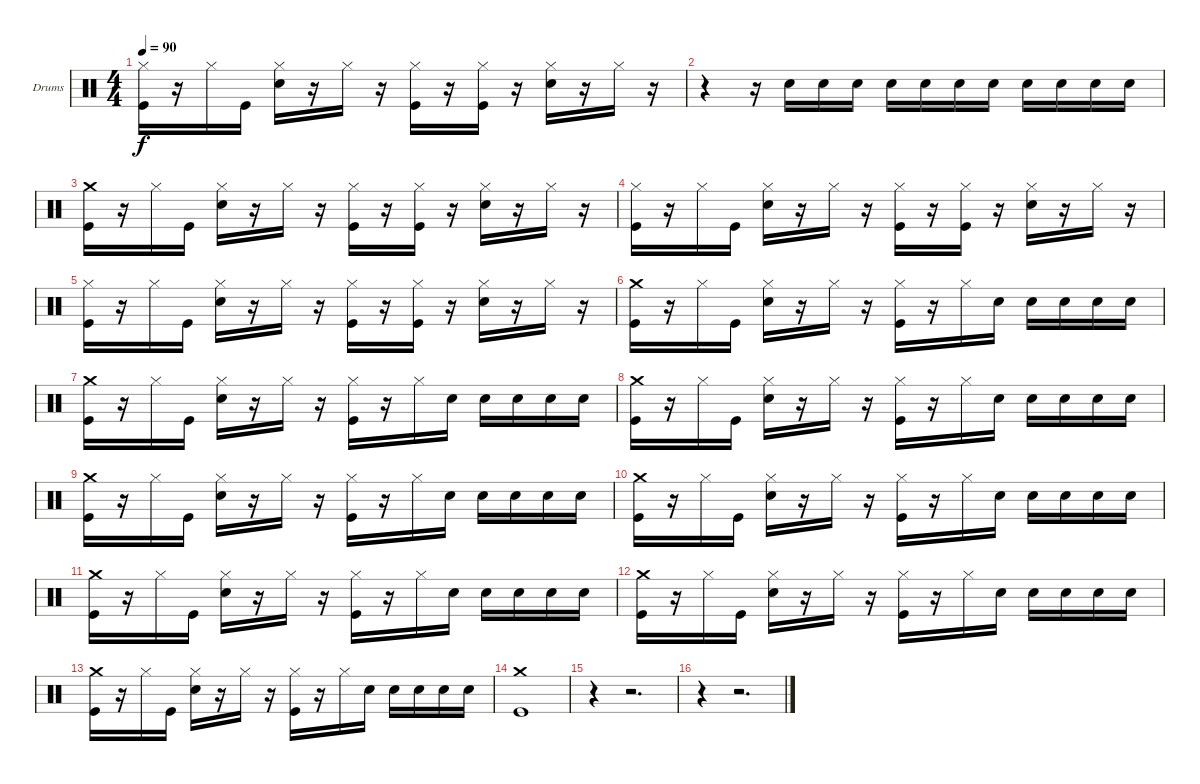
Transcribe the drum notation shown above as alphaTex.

\bracketExtendMode groupsimilarinstruments
\firstSystemTrackNameOrientation horizontal
\otherSystemsTrackNameOrientation horizontal
\track ("Drumkit" "Drums") {instrument percussion}
\staff {score}
\articulation defaults
\ts (4 4)
\tempo 90
\clef neutral
\ks c
("Kick (hit)" "Hi-Hat (closed)").16{dy f} r.16 "Hi-Hat (closed)".16 "Kick (hit)".16 ("Snare (hit) 2" "Hi-Hat (closed)").16 r.16 "Hi-Hat (closed)".16 r.16 ("Kick (hit)" "Hi-Hat (closed)").16 r.16 ("Kick (hit)" "Hi-Hat (closed)").16 r.16 ("Snare (hit) 2" "Hi-Hat (closed)").16 r.16 "Hi-Hat (closed)".16 r.16 |
r.4 r.16 "Snare (hit) 2".16 "Snare (hit) 2".16 "Snare (hit) 2".16 "Snare (hit) 2".16 "Snare (hit) 2".16 "Snare (hit) 2".16 "Snare (hit) 2".16 "Snare (hit) 2".16 "Snare (hit) 2".16 "Snare (hit) 2".16 "Snare (hit) 2".16 |
("Kick (hit)" "Crash medium (hit)").16 r.16 "Hi-Hat (closed)".16 "Kick (hit)".16 ("Snare (hit) 2" "Hi-Hat (closed)").16 r.16 "Hi-Hat (closed)".16 r.16 ("Kick (hit)" "Hi-Hat (closed)").16 r.16 ("Kick (hit)" "Hi-Hat (closed)").16 r.16 ("Snare (hit) 2" "Hi-Hat (closed)").16 r.16 "Hi-Hat (closed)".16 r.16 |
("Kick (hit)" "Hi-Hat (closed)").16 r.16 "Hi-Hat (closed)".16 "Kick (hit)".16 ("Snare (hit) 2" "Hi-Hat (closed)").16 r.16 "Hi-Hat (closed)".16 r.16 ("Kick (hit)" "Hi-Hat (closed)").16 r.16 ("Kick (hit)" "Hi-Hat (closed)").16 r.16 ("Snare (hit) 2" "Hi-Hat (closed)").16 r.16 "Hi-Hat (closed)".16 r.16 |
("Kick (hit)" "Hi-Hat (closed)").16 r.16 "Hi-Hat (closed)".16 "Kick (hit)".16 ("Snare (hit) 2" "Hi-Hat (closed)").16 r.16 "Hi-Hat (closed)".16 r.16 ("Kick (hit)" "Hi-Hat (closed)").16 r.16 ("Kick (hit)" "Hi-Hat (closed)").16 r.16 ("Snare (hit) 2" "Hi-Hat (closed)").16 r.16 "Hi-Hat (closed)".16 r.16 |
("Kick (hit)" "Crash medium (hit)").16 r.16 "Hi-Hat (closed)".16 "Kick (hit)".16 ("Snare (hit) 2" "Hi-Hat (closed)").16 r.16 "Hi-Hat (closed)".16 r.16 ("Kick (hit)" "Hi-Hat (closed)").16 r.16 "Hi-Hat (closed)".16 "Snare (hit) 2".16 "Snare (hit) 2".16 "Snare (hit) 2".16 "Snare (hit) 2".16 "Snare (hit) 2".16 |
("Kick (hit)" "Crash medium (hit)").16 r.16 "Hi-Hat (closed)".16 "Kick (hit)".16 ("Snare (hit) 2" "Hi-Hat (closed)").16 r.16 "Hi-Hat (closed)".16 r.16 ("Kick (hit)" "Hi-Hat (closed)").16 r.16 "Hi-Hat (closed)".16 "Snare (hit) 2".16 "Snare (hit) 2".16 "Snare (hit) 2".16 "Snare (hit) 2".16 "Snare (hit) 2".16 |
("Kick (hit)" "Crash medium (hit)").16 r.16 "Hi-Hat (closed)".16 "Kick (hit)".16 ("Snare (hit) 2" "Hi-Hat (closed)").16 r.16 "Hi-Hat (closed)".16 r.16 ("Kick (hit)" "Hi-Hat (closed)").16 r.16 "Hi-Hat (closed)".16 "Snare (hit) 2".16 "Snare (hit) 2".16 "Snare (hit) 2".16 "Snare (hit) 2".16 "Snare (hit) 2".16 |
("Kick (hit)" "Crash medium (hit)").16 r.16 "Hi-Hat (closed)".16 "Kick (hit)".16 ("Snare (hit) 2" "Hi-Hat (closed)").16 r.16 "Hi-Hat (closed)".16 r.16 ("Kick (hit)" "Hi-Hat (closed)").16 r.16 "Hi-Hat (closed)".16 "Snare (hit) 2".16 "Snare (hit) 2".16 "Snare (hit) 2".16 "Snare (hit) 2".16 "Snare (hit) 2".16 |
("Kick (hit)" "Crash medium (hit)").16 r.16 "Hi-Hat (closed)".16 "Kick (hit)".16 ("Snare (hit) 2" "Hi-Hat (closed)").16 r.16 "Hi-Hat (closed)".16 r.16 ("Kick (hit)" "Hi-Hat (closed)").16 r.16 "Hi-Hat (closed)".16 "Snare (hit) 2".16 "Snare (hit) 2".16 "Snare (hit) 2".16 "Snare (hit) 2".16 "Snare (hit) 2".16 |
("Kick (hit)" "Crash medium (hit)").16 r.16 "Hi-Hat (closed)".16 "Kick (hit)".16 ("Snare (hit) 2" "Hi-Hat (closed)").16 r.16 "Hi-Hat (closed)".16 r.16 ("Kick (hit)" "Hi-Hat (closed)").16 r.16 "Hi-Hat (closed)".16 "Snare (hit) 2".16 "Snare (hit) 2".16 "Snare (hit) 2".16 "Snare (hit) 2".16 "Snare (hit) 2".16 |
("Kick (hit)" "Crash medium (hit)").16 r.16 "Hi-Hat (closed)".16 "Kick (hit)".16 ("Snare (hit) 2" "Hi-Hat (closed)").16 r.16 "Hi-Hat (closed)".16 r.16 ("Kick (hit)" "Hi-Hat (closed)").16 r.16 "Hi-Hat (closed)".16 "Snare (hit) 2".16 "Snare (hit) 2".16 "Snare (hit) 2".16 "Snare (hit) 2".16 "Snare (hit) 2".16 |
("Kick (hit)" "Crash medium (hit)").16 r.16 "Hi-Hat (closed)".16 "Kick (hit)".16 ("Snare (hit) 2" "Hi-Hat (closed)").16 r.16 "Hi-Hat (closed)".16 r.16 ("Kick (hit)" "Hi-Hat (closed)").16 r.16 "Hi-Hat (closed)".16 "Snare (hit) 2".16 "Snare (hit) 2".16 "Snare (hit) 2".16 "Snare (hit) 2".16 "Snare (hit) 2".16 |
("Kick (hit)" "Crash medium (hit)").1 |
r.4 r.2{d} |
r.4 r.2{d}
